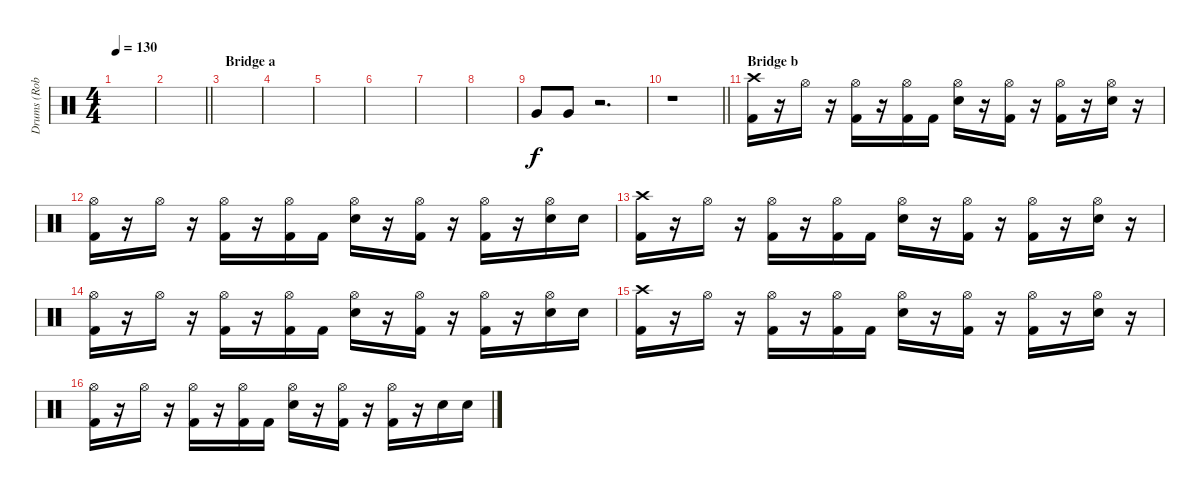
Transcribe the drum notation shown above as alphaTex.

\track ("Drums (Rob)" "Drums (Rob") {instrument percussion}
\staff {score}
\articulation defaults
\ts (4 4)
\tempo 130
\clef neutral
\ks c
|
\barLineRight lightlight
|
\section ("" "Bridge a")
|
|
|
|
|
|
"Very Low Tom (hit)".8 "Very Low Tom (hit)".8 r.2{d} |
\barLineRight lightlight
r.1 |
\section ("" "Bridge b")
("Crash high (hit)" "Kick (hit) 2").16 r.16 "Hi-Hat (open)".16 r.16 ("Hi-Hat (open)" "Kick (hit) 2").16 r.16 ("Hi-Hat (open)" "Kick (hit) 2").16 "Kick (hit) 2".16 ("Hi-Hat (open)" "Electric Snare (hit)").16 r.16 ("Hi-Hat (open)" "Kick (hit) 2").16 r.16 ("Hi-Hat (open)" "Kick (hit) 2").16 r.16 ("Hi-Hat (open)" "Electric Snare (hit)").16 r.16 |
("Hi-Hat (open)" "Kick (hit) 2").16 r.16 "Hi-Hat (open)".16 r.16 ("Hi-Hat (open)" "Kick (hit) 2").16 r.16 ("Hi-Hat (open)" "Kick (hit) 2").16 "Kick (hit) 2".16 ("Hi-Hat (open)" "Electric Snare (hit)").16 r.16 ("Hi-Hat (open)" "Kick (hit) 2").16 r.16 ("Hi-Hat (open)" "Kick (hit) 2").16 r.16 ("Hi-Hat (open)" "Electric Snare (hit)").16 "Electric Snare (hit)".16 |
("Crash high (hit)" "Kick (hit) 2").16 r.16 "Hi-Hat (open)".16 r.16 ("Hi-Hat (open)" "Kick (hit) 2").16 r.16 ("Hi-Hat (open)" "Kick (hit) 2").16 "Kick (hit) 2".16 ("Hi-Hat (open)" "Electric Snare (hit)").16 r.16 ("Hi-Hat (open)" "Kick (hit) 2").16 r.16 ("Hi-Hat (open)" "Kick (hit) 2").16 r.16 ("Hi-Hat (open)" "Electric Snare (hit)").16 r.16 |
("Hi-Hat (open)" "Kick (hit) 2").16 r.16 "Hi-Hat (open)".16 r.16 ("Hi-Hat (open)" "Kick (hit) 2").16 r.16 ("Hi-Hat (open)" "Kick (hit) 2").16 "Kick (hit) 2".16 ("Hi-Hat (open)" "Electric Snare (hit)").16 r.16 ("Hi-Hat (open)" "Kick (hit) 2").16 r.16 ("Hi-Hat (open)" "Kick (hit) 2").16 r.16 ("Hi-Hat (open)" "Electric Snare (hit)").16 "Electric Snare (hit)".16 |
("Crash high (hit)" "Kick (hit) 2").16 r.16 "Hi-Hat (open)".16 r.16 ("Hi-Hat (open)" "Kick (hit) 2").16 r.16 ("Hi-Hat (open)" "Kick (hit) 2").16 "Kick (hit) 2".16 ("Hi-Hat (open)" "Electric Snare (hit)").16 r.16 ("Hi-Hat (open)" "Kick (hit) 2").16 r.16 ("Hi-Hat (open)" "Kick (hit) 2").16 r.16 ("Hi-Hat (open)" "Electric Snare (hit)").16 r.16 |
("Hi-Hat (open)" "Kick (hit) 2").16 r.16 "Hi-Hat (open)".16 r.16 ("Hi-Hat (open)" "Kick (hit) 2").16 r.16 ("Hi-Hat (open)" "Kick (hit) 2").16 "Kick (hit) 2".16 ("Hi-Hat (open)" "Electric Snare (hit)").16 r.16 ("Hi-Hat (open)" "Kick (hit) 2").16 r.16 ("Hi-Hat (open)" "Kick (hit) 2").16 r.16 "Electric Snare (hit)".16 "Electric Snare (hit)".16
